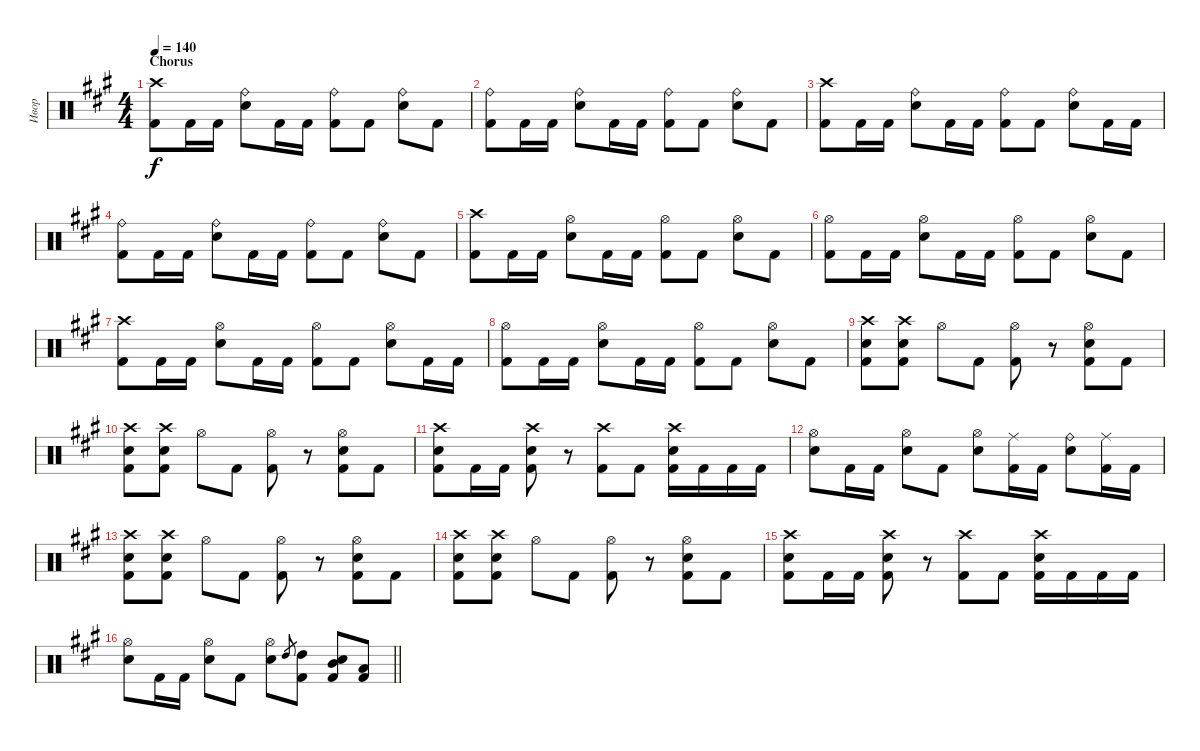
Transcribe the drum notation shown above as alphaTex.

\track ("Ивор" "Ивор") {instrument percussion}
\staff {score}
\articulation defaults
\ts (4 4)
\section ("" "Chorus")
\tempo 140
\clef neutral
\ks f#minor
("Crash high (hit)" "Kick (hit) 2").8{dy f} "Kick (hit) 2".16 "Kick (hit) 2".16 ("Ride (bell)" "Electric Snare (hit)").8 "Kick (hit) 2".16 "Kick (hit) 2".16 ("Ride (bell)" "Kick (hit) 2").8 "Kick (hit) 2".8 ("Ride (bell)" "Electric Snare (hit)").8 "Kick (hit) 2".8 |
("Ride (bell)" "Kick (hit) 2").8 "Kick (hit) 2".16 "Kick (hit) 2".16 ("Ride (bell)" "Electric Snare (hit)").8 "Kick (hit) 2".16 "Kick (hit) 2".16 ("Ride (bell)" "Kick (hit) 2").8 "Kick (hit) 2".8 ("Ride (bell)" "Electric Snare (hit)").8 "Kick (hit) 2".8 |
("Crash high (hit)" "Kick (hit) 2").8 "Kick (hit) 2".16 "Kick (hit) 2".16 ("Ride (bell)" "Electric Snare (hit)").8 "Kick (hit) 2".16 "Kick (hit) 2".16 ("Ride (bell)" "Kick (hit) 2").8 "Kick (hit) 2".8 ("Ride (bell)" "Electric Snare (hit)").8 "Kick (hit) 2".16 "Kick (hit) 2".16 |
("Ride (bell)" "Kick (hit) 2").8 "Kick (hit) 2".16 "Kick (hit) 2".16 ("Ride (bell)" "Electric Snare (hit)").8 "Kick (hit) 2".16 "Kick (hit) 2".16 ("Ride (bell)" "Kick (hit) 2").8 "Kick (hit) 2".8 ("Ride (bell)" "Electric Snare (hit)").8 "Kick (hit) 2".8 |
("Crash high (hit)" "Kick (hit) 2").8 "Kick (hit) 2".16 "Kick (hit) 2".16 ("Hi-Hat (open)" "Electric Snare (hit)").8 "Kick (hit) 2".16 "Kick (hit) 2".16 ("Hi-Hat (open)" "Kick (hit) 2").8 "Kick (hit) 2".8 ("Hi-Hat (open)" "Electric Snare (hit)").8 "Kick (hit) 2".8 |
("Hi-Hat (open)" "Kick (hit) 2").8 "Kick (hit) 2".16 "Kick (hit) 2".16 ("Hi-Hat (open)" "Electric Snare (hit)").8 "Kick (hit) 2".16 "Kick (hit) 2".16 ("Hi-Hat (open)" "Kick (hit) 2").8 "Kick (hit) 2".8 ("Hi-Hat (open)" "Electric Snare (hit)").8 "Kick (hit) 2".8 |
("Crash high (hit)" "Kick (hit) 2").8 "Kick (hit) 2".16 "Kick (hit) 2".16 ("Hi-Hat (open)" "Electric Snare (hit)").8 "Kick (hit) 2".16 "Kick (hit) 2".16 ("Hi-Hat (open)" "Kick (hit) 2").8 "Kick (hit) 2".8 ("Hi-Hat (open)" "Electric Snare (hit)").8 "Kick (hit) 2".16 "Kick (hit) 2".16 |
("Hi-Hat (open)" "Kick (hit) 2").8 "Kick (hit) 2".16 "Kick (hit) 2".16 ("Hi-Hat (open)" "Electric Snare (hit)").8 "Kick (hit) 2".16 "Kick (hit) 2".16 ("Hi-Hat (open)" "Kick (hit) 2").8 "Kick (hit) 2".8 ("Hi-Hat (open)" "Electric Snare (hit)").8 "Kick (hit) 2".8 |
("Crash high (hit)" "Electric Snare (hit)" "Kick (hit) 2").8 ("Crash high (hit)" "Electric Snare (hit)" "Kick (hit) 2").8 "Hi-Hat (open)".8 "Kick (hit) 2".8 ("Hi-Hat (open)" "Kick (hit) 2").8 r.8 ("Hi-Hat (open)" "Electric Snare (hit)" "Kick (hit) 2").8 "Kick (hit) 2".8 |
("Crash high (hit)" "Electric Snare (hit)" "Kick (hit) 2").8 ("Crash high (hit)" "Electric Snare (hit)" "Kick (hit) 2").8 "Hi-Hat (open)".8 "Kick (hit) 2".8 ("Hi-Hat (open)" "Kick (hit) 2").8 r.8 ("Hi-Hat (open)" "Electric Snare (hit)" "Kick (hit) 2").8 "Kick (hit) 2".8 |
("Crash high (hit)" "Electric Snare (hit)" "Kick (hit) 2").8 "Kick (hit) 2".16 "Kick (hit) 2".16 ("Crash high (hit)" "Electric Snare (hit)" "Kick (hit) 2").8 r.8 ("Crash high (hit)" "Kick (hit) 2").8 "Kick (hit) 2".8 ("Crash high (hit)" "Electric Snare (hit)" "Kick (hit) 2").16 "Kick (hit) 2".16 "Kick (hit) 2".16 "Kick (hit) 2".16 |
("Hi-Hat (open)" "Electric Snare (hit)").8 "Kick (hit) 2".16 "Kick (hit) 2".16 ("Hi-Hat (open)" "Electric Snare (hit)").8 "Kick (hit) 2".8 ("Hi-Hat (open)" "Electric Snare (hit)").8 ("Ride (middle)" "Kick (hit) 2").16 "Kick (hit) 2".16 ("Ride (bell)" "Electric Snare (hit)").8 ("Ride (middle)" "Kick (hit) 2").16 "Kick (hit) 2".16 |
("Crash high (hit)" "Electric Snare (hit)" "Kick (hit) 2").8 ("Crash high (hit)" "Electric Snare (hit)" "Kick (hit) 2").8 "Hi-Hat (open)".8 "Kick (hit) 2".8 ("Hi-Hat (open)" "Kick (hit) 2").8 r.8 ("Hi-Hat (open)" "Electric Snare (hit)" "Kick (hit) 2").8 "Kick (hit) 2".8 |
("Crash high (hit)" "Electric Snare (hit)" "Kick (hit) 2").8 ("Crash high (hit)" "Electric Snare (hit)" "Kick (hit) 2").8 "Hi-Hat (open)".8 "Kick (hit) 2".8 ("Hi-Hat (open)" "Kick (hit) 2").8 r.8 ("Hi-Hat (open)" "Electric Snare (hit)" "Kick (hit) 2").8 "Kick (hit) 2".8 |
("Crash high (hit)" "Electric Snare (hit)" "Kick (hit) 2").8 "Kick (hit) 2".16 "Kick (hit) 2".16 ("Crash high (hit)" "Electric Snare (hit)" "Kick (hit) 2").8 r.8 ("Crash high (hit)" "Kick (hit) 2").8 "Kick (hit) 2".8 ("Crash high (hit)" "Electric Snare (hit)" "Kick (hit) 2").16 "Kick (hit) 2".16 "Kick (hit) 2".16 "Kick (hit) 2".16 |
\barLineRight lightlight
("Hi-Hat (open)" "Electric Snare (hit)").8 "Kick (hit) 2".16 "Kick (hit) 2".16 ("Hi-Hat (open)" "Electric Snare (hit)").8 "Kick (hit) 2".8 ("Hi-Hat (open)" "Electric Snare (hit)").8 "High Tom (hit)".8{gr} ("High Tom (hit)" "Kick (hit) 2").8 ("Mid Tom (hit)" "Electric Snare (hit)" "Kick (hit) 2").8 ("Low Tom (hit)" "Kick (hit) 2").8
